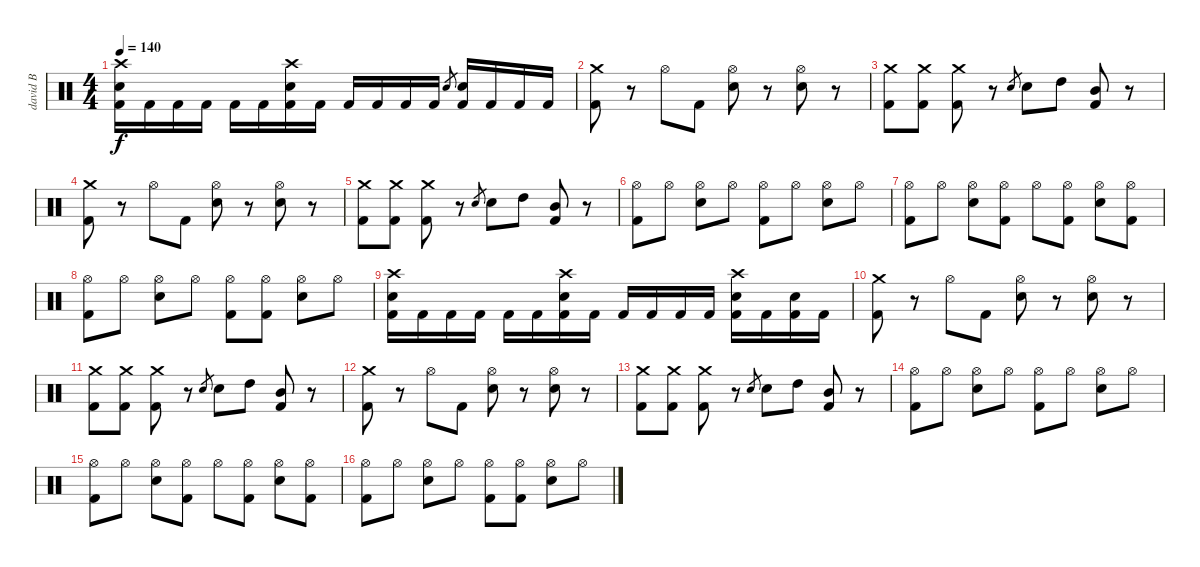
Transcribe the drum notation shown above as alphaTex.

\track ("david B" "david B") {instrument percussion}
\staff {score}
\articulation defaults
\ts (4 4)
\tempo 140
\clef neutral
\ks c
("Crash high (hit)" "Electric Snare (hit)" "Kick (hit) 2").16{dy f} "Kick (hit) 2".16 "Kick (hit) 2".16 "Kick (hit) 2".16 "Kick (hit) 2".16 "Kick (hit) 2".16 ("Crash high (hit)" "Electric Snare (hit)" "Kick (hit) 2").16 "Kick (hit) 2".16 "Kick (hit) 2".16 "Kick (hit) 2".16 "Kick (hit) 2".16 "Kick (hit) 2".16 "Electric Snare (hit)".8{gr} ("Electric Snare (hit)" "Kick (hit) 2").16 "Kick (hit) 2".16 "Kick (hit) 2".16 "Kick (hit) 2".16 |
("Crash medium (hit)" "Kick (hit) 2").8 r.8 "Hi-Hat (open)".8 "Kick (hit) 2".8 ("Hi-Hat (open)" "Electric Snare (hit)").8 r.8 ("Hi-Hat (open)" "Electric Snare (hit)").8 r.8 |
("Crash medium (hit)" "Kick (hit) 2").8 ("Crash medium (hit)" "Kick (hit) 2").8 ("Crash medium (hit)" "Kick (hit) 2").8 r.8 "Electric Snare (hit)".8{gr} "Electric Snare (hit)".8 "High Tom (hit)".8 ("Mid Tom (hit)" "Kick (hit) 2").8 r.8 |
("Crash medium (hit)" "Kick (hit) 2").8 r.8 "Hi-Hat (open)".8 "Kick (hit) 2".8 ("Hi-Hat (open)" "Electric Snare (hit)").8 r.8 ("Hi-Hat (open)" "Electric Snare (hit)").8 r.8 |
("Crash medium (hit)" "Kick (hit) 2").8 ("Crash medium (hit)" "Kick (hit) 2").8 ("Crash medium (hit)" "Kick (hit) 2").8 r.8 "Electric Snare (hit)".8{gr} "Electric Snare (hit)".8 "High Tom (hit)".8 ("Mid Tom (hit)" "Kick (hit) 2").8 r.8 |
("Hi-Hat (open)" "Kick (hit) 2").8 "Hi-Hat (open)".8 ("Hi-Hat (open)" "Electric Snare (hit)").8 "Hi-Hat (open)".8 ("Hi-Hat (open)" "Kick (hit) 2").8 "Hi-Hat (open)".8 ("Hi-Hat (open)" "Electric Snare (hit)").8 "Hi-Hat (open)".8 |
("Hi-Hat (open)" "Kick (hit) 2").8 "Hi-Hat (open)".8 ("Hi-Hat (open)" "Electric Snare (hit)").8 ("Hi-Hat (open)" "Kick (hit) 2").8 "Hi-Hat (open)".8 ("Hi-Hat (open)" "Kick (hit) 2").8 ("Hi-Hat (open)" "Electric Snare (hit)").8 ("Hi-Hat (open)" "Kick (hit) 2").8 |
("Hi-Hat (open)" "Kick (hit) 2").8 "Hi-Hat (open)".8 ("Hi-Hat (open)" "Electric Snare (hit)").8 "Hi-Hat (open)".8 ("Hi-Hat (open)" "Kick (hit) 2").8 ("Hi-Hat (open)" "Kick (hit) 2").8 ("Hi-Hat (open)" "Electric Snare (hit)").8 "Hi-Hat (open)".8 |
("Crash high (hit)" "Electric Snare (hit)" "Kick (hit) 2").16 "Kick (hit) 2".16 "Kick (hit) 2".16 "Kick (hit) 2".16 "Kick (hit) 2".16 "Kick (hit) 2".16 ("Crash high (hit)" "Electric Snare (hit)" "Kick (hit) 2").16 "Kick (hit) 2".16 "Kick (hit) 2".16 "Kick (hit) 2".16 "Kick (hit) 2".16 "Kick (hit) 2".16 ("Crash high (hit)" "Electric Snare (hit)" "Kick (hit) 2").16 "Kick (hit) 2".16 ("Electric Snare (hit)" "Kick (hit) 2").16 "Kick (hit) 2".16 |
("Crash medium (hit)" "Kick (hit) 2").8 r.8 "Hi-Hat (open)".8 "Kick (hit) 2".8 ("Hi-Hat (open)" "Electric Snare (hit)").8 r.8 ("Hi-Hat (open)" "Electric Snare (hit)").8 r.8 |
("Crash medium (hit)" "Kick (hit) 2").8 ("Crash medium (hit)" "Kick (hit) 2").8 ("Crash medium (hit)" "Kick (hit) 2").8 r.8 "Electric Snare (hit)".8{gr} "Electric Snare (hit)".8 "High Tom (hit)".8 ("Mid Tom (hit)" "Kick (hit) 2").8 r.8 |
("Crash medium (hit)" "Kick (hit) 2").8 r.8 "Hi-Hat (open)".8 "Kick (hit) 2".8 ("Hi-Hat (open)" "Electric Snare (hit)").8 r.8 ("Hi-Hat (open)" "Electric Snare (hit)").8 r.8 |
("Crash medium (hit)" "Kick (hit) 2").8 ("Crash medium (hit)" "Kick (hit) 2").8 ("Crash medium (hit)" "Kick (hit) 2").8 r.8 "Electric Snare (hit)".8{gr} "Electric Snare (hit)".8 "High Tom (hit)".8 ("Mid Tom (hit)" "Kick (hit) 2").8 r.8 |
("Hi-Hat (open)" "Kick (hit) 2").8 "Hi-Hat (open)".8 ("Hi-Hat (open)" "Electric Snare (hit)").8 "Hi-Hat (open)".8 ("Hi-Hat (open)" "Kick (hit) 2").8 "Hi-Hat (open)".8 ("Hi-Hat (open)" "Electric Snare (hit)").8 "Hi-Hat (open)".8 |
("Hi-Hat (open)" "Kick (hit) 2").8 "Hi-Hat (open)".8 ("Hi-Hat (open)" "Electric Snare (hit)").8 ("Hi-Hat (open)" "Kick (hit) 2").8 "Hi-Hat (open)".8 ("Hi-Hat (open)" "Kick (hit) 2").8 ("Hi-Hat (open)" "Electric Snare (hit)").8 ("Hi-Hat (open)" "Kick (hit) 2").8 |
("Hi-Hat (open)" "Kick (hit) 2").8 "Hi-Hat (open)".8 ("Hi-Hat (open)" "Electric Snare (hit)").8 "Hi-Hat (open)".8 ("Hi-Hat (open)" "Kick (hit) 2").8 ("Hi-Hat (open)" "Kick (hit) 2").8 ("Hi-Hat (open)" "Electric Snare (hit)").8 "Hi-Hat (open)".8
